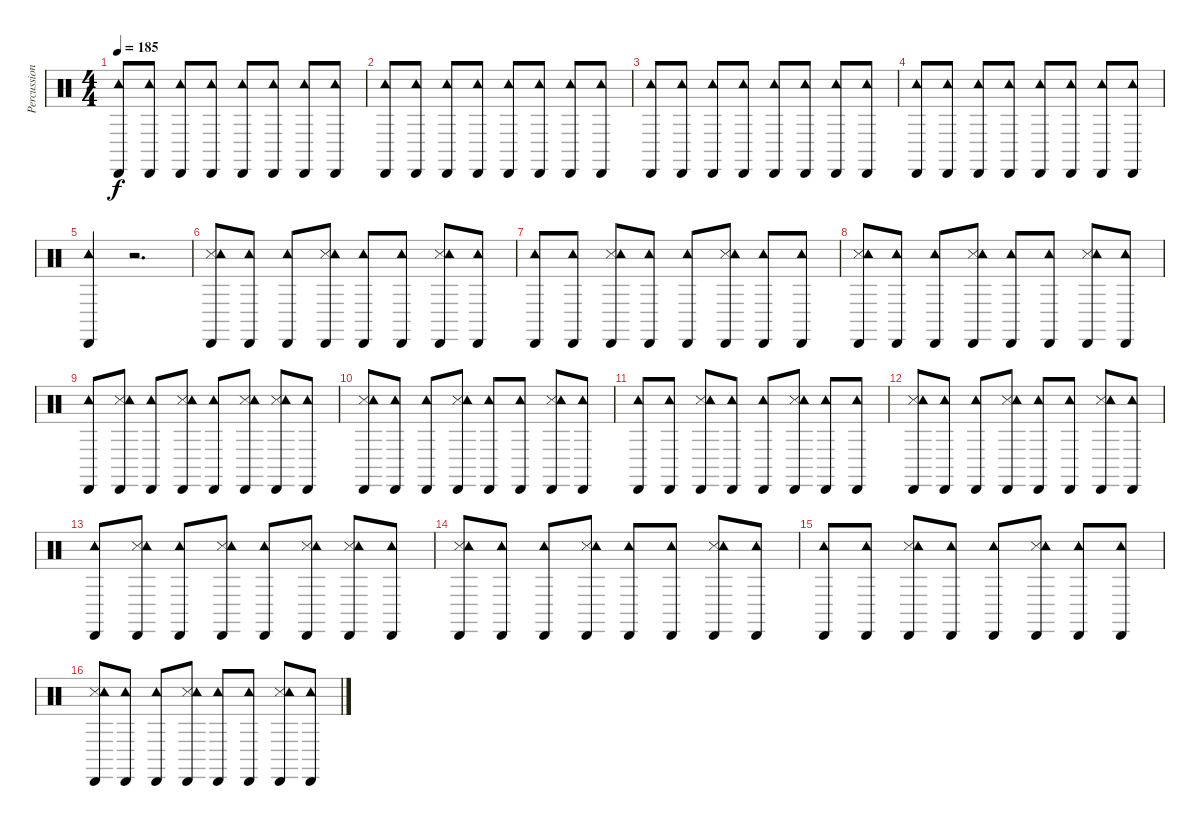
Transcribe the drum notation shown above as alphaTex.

\track ("Percussion" "Percussion") {instrument percussion}
\staff {score}
\articulation defaults
\ts (4 4)
\tempo 185
\clef neutral
\ks c
("Cabasa (hit)" "Tambourine (hit)").8{dy f} ("Cabasa (hit)" "Tambourine (hit)").8 ("Cabasa (hit)" "Tambourine (hit)").8 ("Cabasa (hit)" "Tambourine (hit)").8 ("Cabasa (hit)" "Tambourine (hit)").8 ("Cabasa (hit)" "Tambourine (hit)").8 ("Cabasa (hit)" "Tambourine (hit)").8 ("Cabasa (hit)" "Tambourine (hit)").8 |
("Cabasa (hit)" "Tambourine (hit)").8 ("Cabasa (hit)" "Tambourine (hit)").8 ("Cabasa (hit)" "Tambourine (hit)").8 ("Cabasa (hit)" "Tambourine (hit)").8 ("Cabasa (hit)" "Tambourine (hit)").8 ("Cabasa (hit)" "Tambourine (hit)").8 ("Cabasa (hit)" "Tambourine (hit)").8 ("Cabasa (hit)" "Tambourine (hit)").8 |
("Cabasa (hit)" "Tambourine (hit)").8 ("Cabasa (hit)" "Tambourine (hit)").8 ("Cabasa (hit)" "Tambourine (hit)").8 ("Cabasa (hit)" "Tambourine (hit)").8 ("Cabasa (hit)" "Tambourine (hit)").8 ("Cabasa (hit)" "Tambourine (hit)").8 ("Cabasa (hit)" "Tambourine (hit)").8 ("Cabasa (hit)" "Tambourine (hit)").8 |
("Cabasa (hit)" "Tambourine (hit)").8 ("Cabasa (hit)" "Tambourine (hit)").8 ("Cabasa (hit)" "Tambourine (hit)").8 ("Cabasa (hit)" "Tambourine (hit)").8 ("Cabasa (hit)" "Tambourine (hit)").8 ("Cabasa (hit)" "Tambourine (hit)").8 ("Cabasa (hit)" "Tambourine (hit)").8 ("Cabasa (hit)" "Tambourine (hit)").8 |
("Cabasa (hit)" "Tambourine (hit)").4 r.2{d} |
("Snare (side stick) 3" "Cabasa (hit)" "Tambourine (hit)").8 ("Cabasa (hit)" "Tambourine (hit)").8 ("Cabasa (hit)" "Tambourine (hit)").8 ("Snare (side stick) 3" "Cabasa (hit)" "Tambourine (hit)").8 ("Cabasa (hit)" "Tambourine (hit)").8 ("Cabasa (hit)" "Tambourine (hit)").8 ("Snare (side stick) 3" "Cabasa (hit)" "Tambourine (hit)").8 ("Cabasa (hit)" "Tambourine (hit)").8 |
("Cabasa (hit)" "Tambourine (hit)").8 ("Cabasa (hit)" "Tambourine (hit)").8 ("Snare (side stick) 3" "Cabasa (hit)" "Tambourine (hit)").8 ("Cabasa (hit)" "Tambourine (hit)").8 ("Cabasa (hit)" "Tambourine (hit)").8 ("Snare (side stick) 3" "Cabasa (hit)" "Tambourine (hit)").8 ("Cabasa (hit)" "Tambourine (hit)").8 ("Cabasa (hit)" "Tambourine (hit)").8 |
("Snare (side stick) 3" "Cabasa (hit)" "Tambourine (hit)").8 ("Cabasa (hit)" "Tambourine (hit)").8 ("Cabasa (hit)" "Tambourine (hit)").8 ("Snare (side stick) 3" "Cabasa (hit)" "Tambourine (hit)").8 ("Cabasa (hit)" "Tambourine (hit)").8 ("Cabasa (hit)" "Tambourine (hit)").8 ("Snare (side stick) 3" "Cabasa (hit)" "Tambourine (hit)").8 ("Cabasa (hit)" "Tambourine (hit)").8 |
("Cabasa (hit)" "Tambourine (hit)").8 ("Snare (side stick) 3" "Cabasa (hit)" "Tambourine (hit)").8 ("Cabasa (hit)" "Tambourine (hit)").8 ("Snare (side stick) 3" "Cabasa (hit)" "Tambourine (hit)").8 ("Cabasa (hit)" "Tambourine (hit)").8 ("Snare (side stick) 3" "Cabasa (hit)" "Tambourine (hit)").8 ("Snare (side stick) 3" "Cabasa (hit)" "Tambourine (hit)").8 ("Cabasa (hit)" "Tambourine (hit)").8 |
("Snare (side stick) 3" "Cabasa (hit)" "Tambourine (hit)").8 ("Cabasa (hit)" "Tambourine (hit)").8 ("Cabasa (hit)" "Tambourine (hit)").8 ("Snare (side stick) 3" "Cabasa (hit)" "Tambourine (hit)").8 ("Cabasa (hit)" "Tambourine (hit)").8 ("Cabasa (hit)" "Tambourine (hit)").8 ("Snare (side stick) 3" "Cabasa (hit)" "Tambourine (hit)").8 ("Cabasa (hit)" "Tambourine (hit)").8 |
("Cabasa (hit)" "Tambourine (hit)").8 ("Cabasa (hit)" "Tambourine (hit)").8 ("Snare (side stick) 3" "Cabasa (hit)" "Tambourine (hit)").8 ("Cabasa (hit)" "Tambourine (hit)").8 ("Cabasa (hit)" "Tambourine (hit)").8 ("Snare (side stick) 3" "Cabasa (hit)" "Tambourine (hit)").8 ("Cabasa (hit)" "Tambourine (hit)").8 ("Cabasa (hit)" "Tambourine (hit)").8 |
("Snare (side stick) 3" "Cabasa (hit)" "Tambourine (hit)").8 ("Cabasa (hit)" "Tambourine (hit)").8 ("Cabasa (hit)" "Tambourine (hit)").8 ("Snare (side stick) 3" "Cabasa (hit)" "Tambourine (hit)").8 ("Cabasa (hit)" "Tambourine (hit)").8 ("Cabasa (hit)" "Tambourine (hit)").8 ("Snare (side stick) 3" "Cabasa (hit)" "Tambourine (hit)").8 ("Cabasa (hit)" "Tambourine (hit)").8 |
("Cabasa (hit)" "Tambourine (hit)").8 ("Snare (side stick) 3" "Cabasa (hit)" "Tambourine (hit)").8 ("Cabasa (hit)" "Tambourine (hit)").8 ("Snare (side stick) 3" "Cabasa (hit)" "Tambourine (hit)").8 ("Cabasa (hit)" "Tambourine (hit)").8 ("Snare (side stick) 3" "Cabasa (hit)" "Tambourine (hit)").8 ("Snare (side stick) 3" "Cabasa (hit)" "Tambourine (hit)").8 ("Cabasa (hit)" "Tambourine (hit)").8 |
("Cabasa (hit)" "Snare (side stick) 3" "Tambourine (hit)").8 ("Cabasa (hit)" "Tambourine (hit)").8 ("Cabasa (hit)" "Tambourine (hit)").8 ("Cabasa (hit)" "Snare (side stick) 3" "Tambourine (hit)").8 ("Cabasa (hit)" "Tambourine (hit)").8 ("Cabasa (hit)" "Tambourine (hit)").8 ("Cabasa (hit)" "Snare (side stick) 3" "Tambourine (hit)").8 ("Cabasa (hit)" "Tambourine (hit)").8 |
("Cabasa (hit)" "Tambourine (hit)").8 ("Cabasa (hit)" "Tambourine (hit)").8 ("Cabasa (hit)" "Snare (side stick) 3" "Tambourine (hit)").8 ("Cabasa (hit)" "Tambourine (hit)").8 ("Cabasa (hit)" "Tambourine (hit)").8 ("Cabasa (hit)" "Snare (side stick) 3" "Tambourine (hit)").8 ("Cabasa (hit)" "Tambourine (hit)").8 ("Cabasa (hit)" "Tambourine (hit)").8 |
("Cabasa (hit)" "Snare (side stick) 3" "Tambourine (hit)").8 ("Cabasa (hit)" "Tambourine (hit)").8 ("Cabasa (hit)" "Tambourine (hit)").8 ("Cabasa (hit)" "Snare (side stick) 3" "Tambourine (hit)").8 ("Cabasa (hit)" "Tambourine (hit)").8 ("Cabasa (hit)" "Tambourine (hit)").8 ("Cabasa (hit)" "Snare (side stick) 3" "Tambourine (hit)").8 ("Cabasa (hit)" "Tambourine (hit)").8
